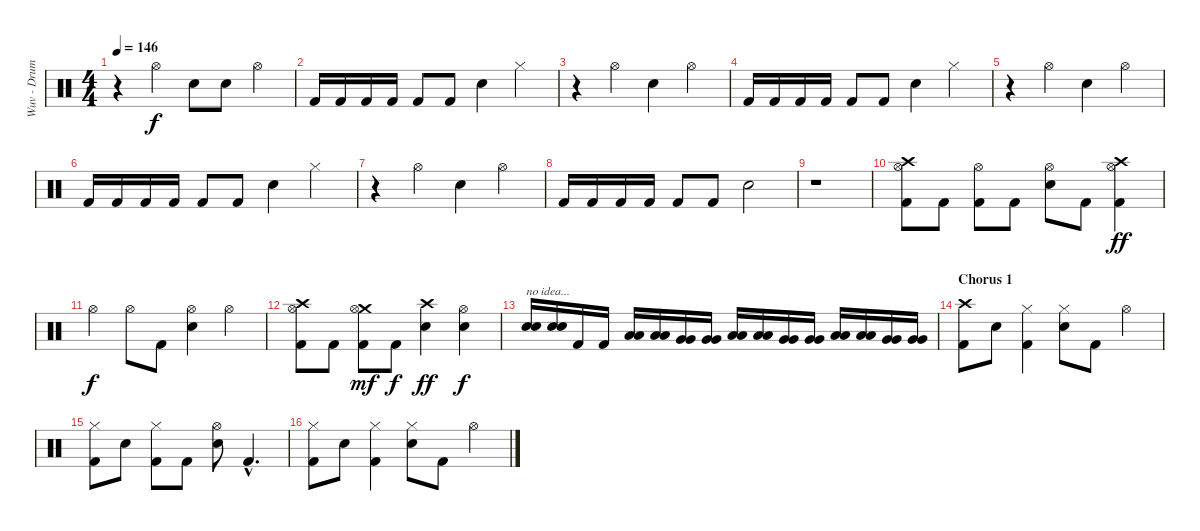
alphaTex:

\track ("Wuv - Drums" "Wuv - Drum") {instrument percussion}
\staff {score}
\articulation defaults
\ts (4 4)
\tempo 146
\clef neutral
\ks c
r.4{dy f} "Hi-Hat (open)".4 "Electric Snare (hit)".8 "Electric Snare (hit)".8 "Hi-Hat (open)".4 |
"Kick (hit) 2".16 "Kick (hit) 2".16 "Kick (hit) 2".16 "Kick (hit) 2".16 "Kick (hit) 2".8 "Kick (hit) 2".8 "Electric Snare (hit)".4 "Hi-Hat (closed)".4 |
r.4 "Hi-Hat (open)".4 "Electric Snare (hit)".4 "Hi-Hat (open)".4 |
"Kick (hit) 2".16 "Kick (hit) 2".16 "Kick (hit) 2".16 "Kick (hit) 2".16 "Kick (hit) 2".8 "Kick (hit) 2".8 "Electric Snare (hit)".4 "Hi-Hat (closed)".4 |
r.4 "Hi-Hat (open)".4 "Electric Snare (hit)".4 "Hi-Hat (open)".4 |
"Kick (hit) 2".16 "Kick (hit) 2".16 "Kick (hit) 2".16 "Kick (hit) 2".16 "Kick (hit) 2".8 "Kick (hit) 2".8 "Electric Snare (hit)".4 "Hi-Hat (closed)".4 |
r.4 "Hi-Hat (open)".4 "Electric Snare (hit)".4 "Hi-Hat (open)".4 |
"Kick (hit) 2".16 "Kick (hit) 2".16 "Kick (hit) 2".16 "Kick (hit) 2".16 "Kick (hit) 2".8 "Kick (hit) 2".8 "Electric Snare (hit)".2 |
r.1 |
("Crash high (hit)" "Hi-Hat (open)" "Kick (hit) 2").8 "Kick (hit) 2".8 ("Hi-Hat (open)" "Kick (hit) 2").8 "Kick (hit) 2".8 ("Hi-Hat (open)" "Electric Snare (hit)").8 "Kick (hit) 2".8 ("Crash high (hit)" "Hi-Hat (open)" "Kick (hit) 2").4{dy ff} |
"Hi-Hat (open)".4{dy f} "Hi-Hat (open)".8 "Kick (hit) 2".8 ("Hi-Hat (open)" "Electric Snare (hit)").4 "Hi-Hat (open)".4 |
("Crash high (hit)" "Hi-Hat (open)" "Kick (hit) 2").8 "Kick (hit) 2".8 ("Crash medium (hit)" "Hi-Hat (open)" "Kick (hit) 2").8{dy mf} "Kick (hit) 2".8{dy f} ("Crash high (hit)" "Electric Snare (hit)").4{dy ff} ("Hi-Hat (open)" "Electric Snare (hit)").4{dy f} |
("Electric Snare (hit)" "Electric Snare (hit)").16{txt "no idea..."} ("Electric Snare (hit)" "Electric Snare (hit)").16 "Kick (hit) 2".16 "Kick (hit) 2".16 ("Low Tom (hit)" "Low Tom (hit)").16 ("Low Tom (hit)" "Low Tom (hit)").16 ("Very Low Tom (hit)" "Very Low Tom (hit)").16 ("Very Low Tom (hit)" "Very Low Tom (hit)").16 ("Low Tom (hit)" "Low Tom (hit)").16 ("Low Tom (hit)" "Low Tom (hit)").16 ("Very Low Tom (hit)" "Very Low Tom (hit)").16 ("Very Low Tom (hit)" "Very Low Tom (hit)").16 ("Low Tom (hit)" "Low Tom (hit)").16 ("Low Tom (hit)" "Low Tom (hit)").16 ("Very Low Tom (hit)" "Very Low Tom (hit)").16 ("Very Low Tom (hit)" "Very Low Tom (hit)").16 |
\section ("" "Chorus 1")
("Crash high (hit)" "Kick (hit) 2").8 "Electric Snare (hit)".8 ("Hi-Hat (closed)" "Kick (hit) 2").4 ("Hi-Hat (closed)" "Electric Snare (hit)").8 "Kick (hit) 2".8 "Hi-Hat (open)".4 |
("Hi-Hat (closed)" "Kick (hit) 2").8 "Electric Snare (hit)".8 ("Hi-Hat (closed)" "Kick (hit) 2").8 "Kick (hit) 2".8 ("Hi-Hat (open)" "Electric Snare (hit)").8 "Kick (hit) 2"{hac}.4{d} |
("Hi-Hat (closed)" "Kick (hit) 2").8 "Electric Snare (hit)".8 ("Hi-Hat (closed)" "Kick (hit) 2").4 ("Hi-Hat (closed)" "Electric Snare (hit)").8 "Kick (hit) 2".8 "Hi-Hat (open)".4
